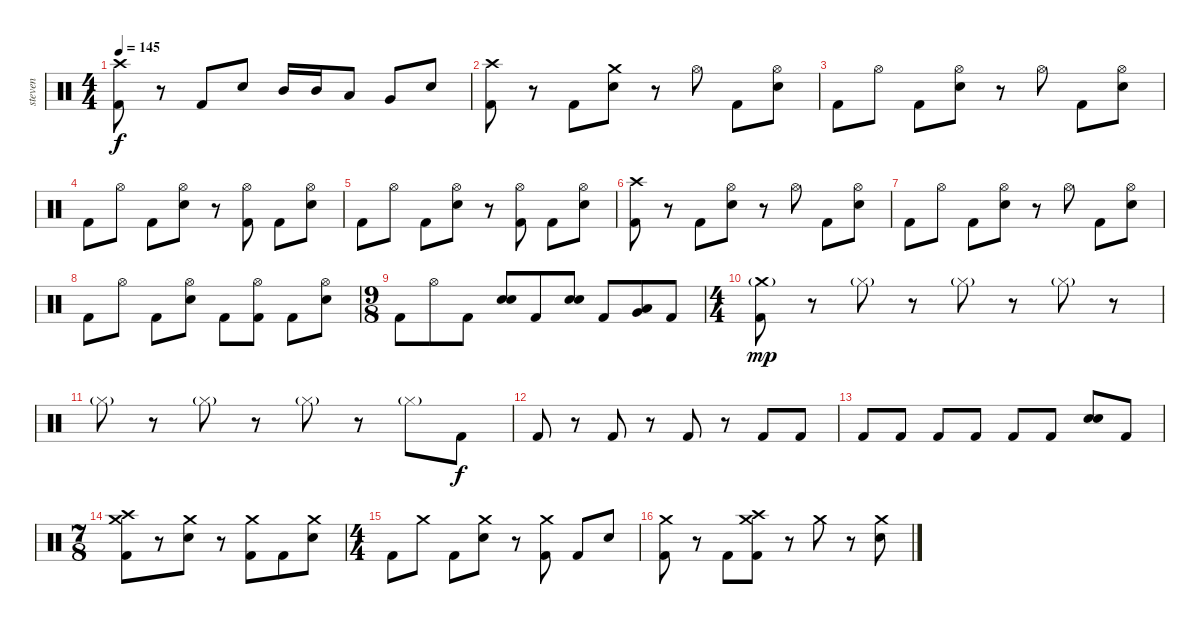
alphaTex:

\track ("steven" "steven") {instrument percussion}
\staff {score}
\articulation defaults
\ts (4 4)
\tempo 145
\clef neutral
\ks c
("Crash high (hit)" "Kick (hit) 2").8{dy f} r.8 "Kick (hit) 2".8 "Electric Snare (hit)".8 "Mid Tom (hit)".16 "Mid Tom (hit)".16 "Low Floor Tom (hit)".8 "Very Low Tom (hit)".8 "Electric Snare (hit)".8 |
("Crash high (hit)" "Kick (hit) 2").8 r.8 "Kick (hit) 2".8 ("Crash medium (hit)" "Electric Snare (hit)").8 r.8 "Hi-Hat (open)".8 "Kick (hit) 2".8 ("Hi-Hat (open)" "Electric Snare (hit)").8 |
"Kick (hit) 2".8 "Hi-Hat (open)".8 "Kick (hit) 2".8 ("Hi-Hat (open)" "Electric Snare (hit)").8 r.8 "Hi-Hat (open)".8 "Kick (hit) 2".8 ("Hi-Hat (open)" "Electric Snare (hit)").8 |
"Kick (hit) 2".8 "Hi-Hat (open)".8 "Kick (hit) 2".8 ("Hi-Hat (open)" "Electric Snare (hit)").8 r.8 ("Hi-Hat (open)" "Kick (hit) 2").8 "Kick (hit) 2".8 ("Hi-Hat (open)" "Electric Snare (hit)").8 |
"Kick (hit) 2".8 "Hi-Hat (open)".8 "Kick (hit) 2".8 ("Hi-Hat (open)" "Electric Snare (hit)").8 r.8 ("Hi-Hat (open)" "Kick (hit) 2").8 "Kick (hit) 2".8 ("Hi-Hat (open)" "Electric Snare (hit)").8 |
("Crash high (hit)" "Kick (hit) 2").8 r.8 "Kick (hit) 2".8 ("Hi-Hat (open)" "Electric Snare (hit)").8 r.8 "Hi-Hat (open)".8 "Kick (hit) 2".8 ("Hi-Hat (open)" "Electric Snare (hit)").8 |
"Kick (hit) 2".8 "Hi-Hat (open)".8 "Kick (hit) 2".8 ("Hi-Hat (open)" "Electric Snare (hit)").8 r.8 "Hi-Hat (open)".8 "Kick (hit) 2".8 ("Hi-Hat (open)" "Electric Snare (hit)").8 |
"Kick (hit) 2".8 "Hi-Hat (open)".8 "Kick (hit) 2".8 ("Hi-Hat (open)" "Electric Snare (hit)").8 "Kick (hit) 2".8 ("Hi-Hat (open)" "Kick (hit) 2").8 "Kick (hit) 2".8 ("Hi-Hat (open)" "Electric Snare (hit)").8 |
\ts (9 8)
"Kick (hit) 2".8 "Hi-Hat (open)".8 "Kick (hit) 2".8 ("Electric Snare (hit)" "Electric Snare (hit)").8 "Kick (hit) 2".8 ("Electric Snare (hit)" "Electric Snare (hit)").8 "Kick (hit) 2".8 ("Low Tom (hit)" "Very Low Tom (hit)").8 "Kick (hit) 2".8 |
\ts (4 4)
("Crash medium (hit)"{g} "Kick (hit) 2").8{dy mp} r.8 "Hi-Hat (closed)"{g}.8 r.8 "Hi-Hat (closed)"{g}.8 r.8 "Hi-Hat (closed)"{g}.8 r.8 |
"Hi-Hat (closed)"{g}.8 r.8 "Hi-Hat (closed)"{g}.8 r.8 "Hi-Hat (closed)"{g}.8 r.8 "Hi-Hat (closed)"{g}.8 "Kick (hit) 2".8{dy f} |
"Kick (hit) 2".8 r.8 "Kick (hit) 2".8 r.8 "Kick (hit) 2".8 r.8 "Kick (hit) 2".8 "Kick (hit) 2".8 |
"Kick (hit) 2".8 "Kick (hit) 2".8 "Kick (hit) 2".8 "Kick (hit) 2".8 "Kick (hit) 2".8 "Kick (hit) 2".8 ("Electric Snare (hit)" "Electric Snare (hit)").8 "Kick (hit) 2".8 |
\ts (7 8)
("Crash medium (hit)" "Crash high (hit)" "Kick (hit) 2").8 r.8 ("Crash medium (hit)" "Electric Snare (hit)").8 r.8 ("Crash medium (hit)" "Kick (hit) 2").8 "Kick (hit) 2".8 ("Crash medium (hit)" "Electric Snare (hit)").8 |
\ts (4 4)
"Kick (hit) 2".8 "Crash medium (hit)".8 "Kick (hit) 2".8 ("Crash medium (hit)" "Electric Snare (hit)").8 r.8 ("Crash medium (hit)" "Kick (hit) 2").8 "Kick (hit) 2".8 "Electric Snare (hit)".8 |
("Crash medium (hit)" "Kick (hit) 2").8 r.8 "Kick (hit) 2".8 ("Crash medium (hit)" "Crash high (hit)" "Kick (hit) 2").8 r.8 "Crash medium (hit)".8 r.8 ("Crash medium (hit)" "Electric Snare (hit)").8
